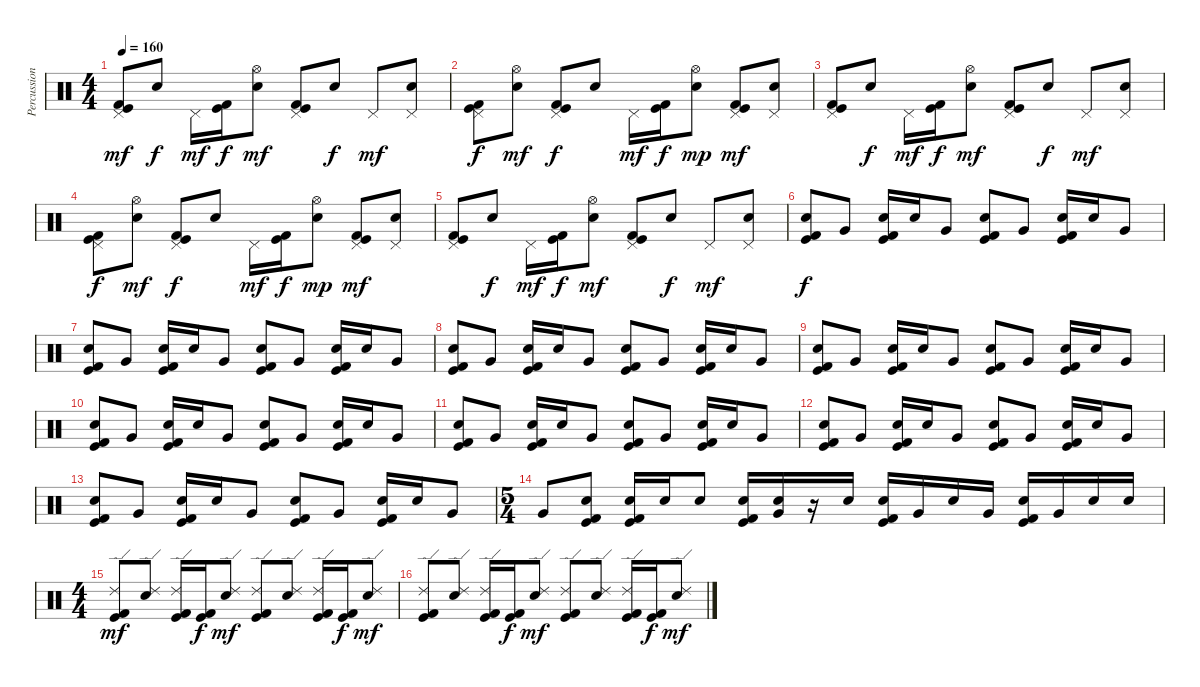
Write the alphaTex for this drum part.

\track ("Percussions" "Percussion") {instrument percussion}
\staff {score}
\articulation defaults
\ts (4 4)
\tempo 160
\clef neutral
\ks c
("Pedal Hi-Hat (hit)" "Kick (hit)" "Kick (hit) 2").8{dy mf} "Electric Snare (hit)".8{dy f} "Pedal Hi-Hat (hit)".16{dy mf} ("Kick (hit)" "Kick (hit) 2").16{dy f} ("Hi-Hat (open)" "Electric Snare (hit)").8{dy mf} ("Pedal Hi-Hat (hit)" "Kick (hit)" "Kick (hit) 2").8 "Electric Snare (hit)".8{dy f} "Pedal Hi-Hat (hit)".8{dy mf} ("Pedal Hi-Hat (hit)" "Electric Snare (hit)").8 |
("Pedal Hi-Hat (hit)" "Kick (hit)" "Kick (hit) 2").8{dy f} ("Hi-Hat (open)" "Electric Snare (hit)").8{dy mf} ("Pedal Hi-Hat (hit)" "Kick (hit)" "Kick (hit) 2").8{dy f} "Electric Snare (hit)".8 "Pedal Hi-Hat (hit)".16{dy mf} ("Kick (hit)" "Kick (hit) 2").16{dy f} ("Hi-Hat (open)" "Electric Snare (hit)").8{dy mp} ("Pedal Hi-Hat (hit)" "Kick (hit)" "Kick (hit) 2").8{dy mf} ("Pedal Hi-Hat (hit)" "Electric Snare (hit)").8 |
("Pedal Hi-Hat (hit)" "Kick (hit)" "Kick (hit) 2").8 "Electric Snare (hit)".8{dy f} "Pedal Hi-Hat (hit)".16{dy mf} ("Kick (hit)" "Kick (hit) 2").16{dy f} ("Hi-Hat (open)" "Electric Snare (hit)").8{dy mf} ("Pedal Hi-Hat (hit)" "Kick (hit)" "Kick (hit) 2").8 "Electric Snare (hit)".8{dy f} "Pedal Hi-Hat (hit)".8{dy mf} ("Pedal Hi-Hat (hit)" "Electric Snare (hit)").8 |
("Pedal Hi-Hat (hit)" "Kick (hit)" "Kick (hit) 2").8{dy f} ("Hi-Hat (open)" "Electric Snare (hit)").8{dy mf} ("Pedal Hi-Hat (hit)" "Kick (hit)" "Kick (hit) 2").8{dy f} "Electric Snare (hit)".8 "Pedal Hi-Hat (hit)".16{dy mf} ("Kick (hit)" "Kick (hit) 2").16{dy f} ("Hi-Hat (open)" "Electric Snare (hit)").8{dy mp} ("Pedal Hi-Hat (hit)" "Kick (hit)" "Kick (hit) 2").8{dy mf} ("Pedal Hi-Hat (hit)" "Electric Snare (hit)").8 |
("Pedal Hi-Hat (hit)" "Kick (hit)" "Kick (hit) 2").8 "Electric Snare (hit)".8{dy f} "Pedal Hi-Hat (hit)".16{dy mf} ("Kick (hit)" "Kick (hit) 2").16{dy f} ("Hi-Hat (open)" "Electric Snare (hit)").8{dy mf} ("Pedal Hi-Hat (hit)" "Kick (hit)" "Kick (hit) 2").8 "Electric Snare (hit)".8{dy f} "Pedal Hi-Hat (hit)".8{dy mf} ("Pedal Hi-Hat (hit)" "Electric Snare (hit)").8 |
("Electric Snare (hit)" "Kick (hit)" "Kick (hit) 2").8{dy f} "Very Low Tom (hit)".8 ("Electric Snare (hit)" "Kick (hit)" "Kick (hit) 2").16 "Electric Snare (hit)".16 "Very Low Tom (hit)".8 ("Electric Snare (hit)" "Kick (hit)" "Kick (hit) 2").8 "Very Low Tom (hit)".8 ("Electric Snare (hit)" "Kick (hit)" "Kick (hit) 2").16 "Electric Snare (hit)".16 "Very Low Tom (hit)".8 |
("Electric Snare (hit)" "Kick (hit)" "Kick (hit) 2").8 "Very Low Tom (hit)".8 ("Electric Snare (hit)" "Kick (hit)" "Kick (hit) 2").16 "Electric Snare (hit)".16 "Very Low Tom (hit)".8 ("Electric Snare (hit)" "Kick (hit)" "Kick (hit) 2").8 "Very Low Tom (hit)".8 ("Electric Snare (hit)" "Kick (hit)" "Kick (hit) 2").16 "Electric Snare (hit)".16 "Very Low Tom (hit)".8 |
("Electric Snare (hit)" "Kick (hit)" "Kick (hit) 2").8 "Very Low Tom (hit)".8 ("Electric Snare (hit)" "Kick (hit)" "Kick (hit) 2").16 "Electric Snare (hit)".16 "Very Low Tom (hit)".8 ("Electric Snare (hit)" "Kick (hit)" "Kick (hit) 2").8 "Very Low Tom (hit)".8 ("Electric Snare (hit)" "Kick (hit)" "Kick (hit) 2").16 "Electric Snare (hit)".16 "Very Low Tom (hit)".8 |
("Electric Snare (hit)" "Kick (hit)" "Kick (hit) 2").8 "Very Low Tom (hit)".8 ("Electric Snare (hit)" "Kick (hit)" "Kick (hit) 2").16 "Electric Snare (hit)".16 "Very Low Tom (hit)".8 ("Electric Snare (hit)" "Kick (hit)" "Kick (hit) 2").8 "Very Low Tom (hit)".8 ("Electric Snare (hit)" "Kick (hit)" "Kick (hit) 2").16 "Electric Snare (hit)".16 "Very Low Tom (hit)".8 |
("Electric Snare (hit)" "Kick (hit)" "Kick (hit) 2").8 "Very Low Tom (hit)".8 ("Electric Snare (hit)" "Kick (hit)" "Kick (hit) 2").16 "Electric Snare (hit)".16 "Very Low Tom (hit)".8 ("Electric Snare (hit)" "Kick (hit)" "Kick (hit) 2").8 "Very Low Tom (hit)".8 ("Electric Snare (hit)" "Kick (hit)" "Kick (hit) 2").16 "Electric Snare (hit)".16 "Very Low Tom (hit)".8 |
("Electric Snare (hit)" "Kick (hit)" "Kick (hit) 2").8 "Very Low Tom (hit)".8 ("Electric Snare (hit)" "Kick (hit)" "Kick (hit) 2").16 "Electric Snare (hit)".16 "Very Low Tom (hit)".8 ("Electric Snare (hit)" "Kick (hit)" "Kick (hit) 2").8 "Very Low Tom (hit)".8 ("Electric Snare (hit)" "Kick (hit)" "Kick (hit) 2").16 "Electric Snare (hit)".16 "Very Low Tom (hit)".8 |
("Electric Snare (hit)" "Kick (hit)" "Kick (hit) 2").8 "Very Low Tom (hit)".8 ("Electric Snare (hit)" "Kick (hit)" "Kick (hit) 2").16 "Electric Snare (hit)".16 "Very Low Tom (hit)".8 ("Electric Snare (hit)" "Kick (hit)" "Kick (hit) 2").8 "Very Low Tom (hit)".8 ("Electric Snare (hit)" "Kick (hit)" "Kick (hit) 2").16 "Electric Snare (hit)".16 "Very Low Tom (hit)".8 |
("Electric Snare (hit)" "Kick (hit)" "Kick (hit) 2").8 "Very Low Tom (hit)".8 ("Electric Snare (hit)" "Kick (hit)" "Kick (hit) 2").16 "Electric Snare (hit)".16 "Very Low Tom (hit)".8 ("Electric Snare (hit)" "Kick (hit)" "Kick (hit) 2").8 "Very Low Tom (hit)".8 ("Electric Snare (hit)" "Kick (hit)" "Kick (hit) 2").16 "Electric Snare (hit)".16 "Very Low Tom (hit)".8 |
\ts (5 4)
"Very Low Tom (hit)".8 ("Electric Snare (hit)" "Kick (hit)" "Kick (hit) 2").8 ("Electric Snare (hit)" "Kick (hit)" "Kick (hit) 2").16 "Electric Snare (hit)".16 "Electric Snare (hit)".8 ("Electric Snare (hit)" "Kick (hit)" "Kick (hit) 2").16 ("Electric Snare (hit)" "Very Low Tom (hit)").16 r.16 "Electric Snare (hit)".16 ("Electric Snare (hit)" "Kick (hit)" "Kick (hit) 2").16 "Very Low Tom (hit)".16 "Electric Snare (hit)".16 "Very Low Tom (hit)".16 ("Electric Snare (hit)" "Kick (hit)" "Kick (hit) 2").16 "Very Low Tom (hit)".16 "Electric Snare (hit)".16 "Electric Snare (hit)".16 |
\ts (4 4)
("Ride (edge) 2" "Kick (hit)" "Kick (hit) 2").8{dy mf} ("Ride (edge) 2" "Electric Snare (hit)").8 ("Ride (edge) 2" "Kick (hit)" "Kick (hit) 2").16 ("Kick (hit)" "Kick (hit) 2").16{dy f} ("Ride (edge) 2" "Electric Snare (hit)").8{dy mf} ("Ride (edge) 2" "Kick (hit)" "Kick (hit) 2").8 ("Ride (edge) 2" "Electric Snare (hit)").8 ("Ride (edge) 2" "Kick (hit)" "Kick (hit) 2").16 ("Kick (hit)" "Kick (hit) 2").16{dy f} ("Ride (edge) 2" "Electric Snare (hit)").8{dy mf} |
("Ride (edge) 2" "Kick (hit)" "Kick (hit) 2").8 ("Ride (edge) 2" "Electric Snare (hit)").8 ("Ride (edge) 2" "Kick (hit)" "Kick (hit) 2").16 ("Kick (hit)" "Kick (hit) 2").16{dy f} ("Ride (edge) 2" "Electric Snare (hit)").8{dy mf} ("Ride (edge) 2" "Kick (hit)" "Kick (hit) 2").8 ("Ride (edge) 2" "Electric Snare (hit)").8 ("Ride (edge) 2" "Kick (hit)" "Kick (hit) 2").16 ("Kick (hit)" "Kick (hit) 2").16{dy f} ("Ride (edge) 2" "Electric Snare (hit)").8{dy mf}
